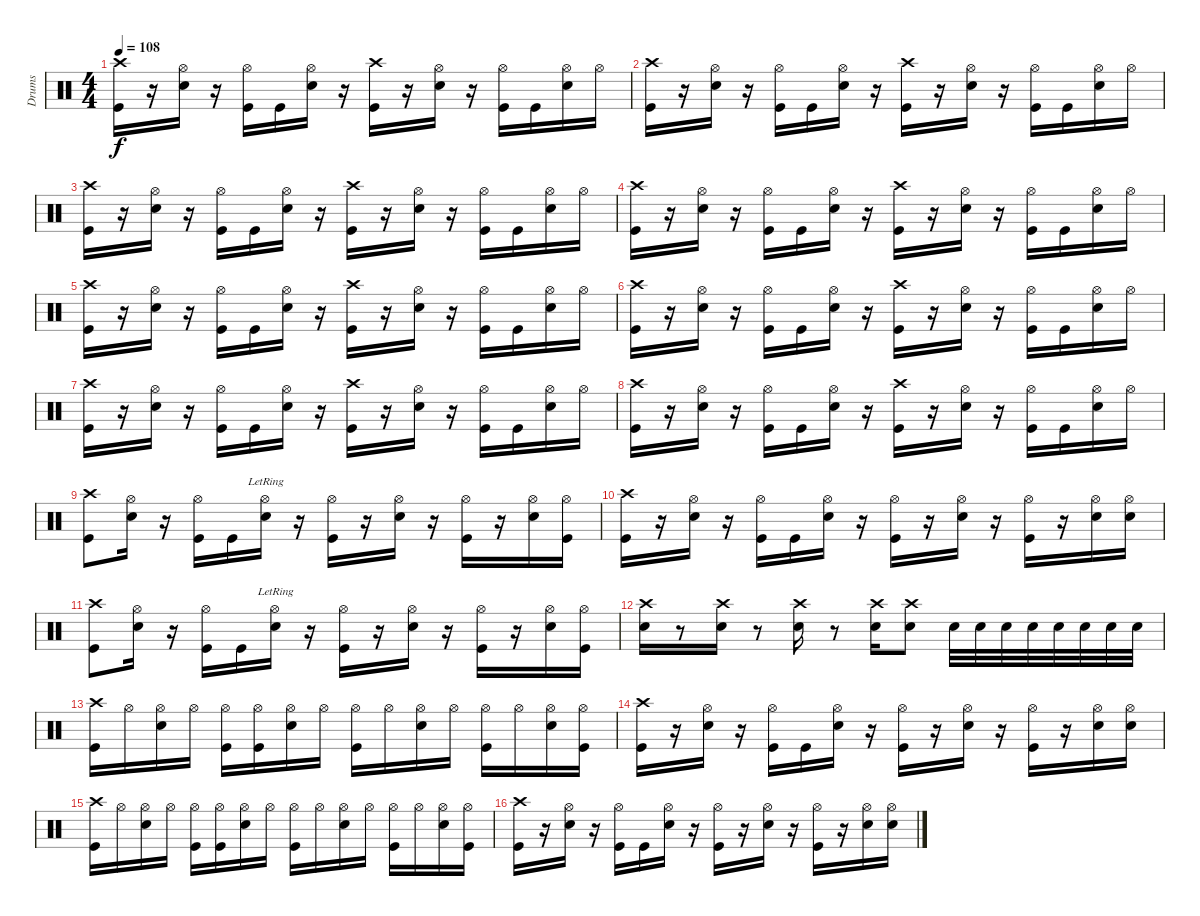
\track ("Drums" "Drums") {instrument percussion}
\staff {score}
\articulation defaults
\ts (4 4)
\tempo 108
\clef neutral
\ks c
("Crash high (hit)" "Kick (hit)").16{dy f} r.16 ("Hi-Hat (open)" "Snare (hit) 2").16 r.16 ("Hi-Hat (open)" "Kick (hit)").16 "Kick (hit)".16 ("Hi-Hat (open)" "Snare (hit) 2").16 r.16 ("Crash high (hit)" "Kick (hit)").16 r.16 ("Hi-Hat (open)" "Snare (hit) 2").16 r.16 ("Hi-Hat (open)" "Kick (hit)").16 "Kick (hit)".16 ("Hi-Hat (open)" "Snare (hit) 2").16 "Hi-Hat (open)".16 |
("Crash high (hit)" "Kick (hit)").16 r.16 ("Hi-Hat (open)" "Snare (hit) 2").16 r.16 ("Hi-Hat (open)" "Kick (hit)").16 "Kick (hit)".16 ("Hi-Hat (open)" "Snare (hit) 2").16 r.16 ("Crash high (hit)" "Kick (hit)").16 r.16 ("Hi-Hat (open)" "Snare (hit) 2").16 r.16 ("Hi-Hat (open)" "Kick (hit)").16 "Kick (hit)".16 ("Hi-Hat (open)" "Snare (hit) 2").16 "Hi-Hat (open)".16 |
("Crash high (hit)" "Kick (hit)").16 r.16 ("Hi-Hat (open)" "Snare (hit) 2").16 r.16 ("Hi-Hat (open)" "Kick (hit)").16 "Kick (hit)".16 ("Hi-Hat (open)" "Snare (hit) 2").16 r.16 ("Crash high (hit)" "Kick (hit)").16 r.16 ("Hi-Hat (open)" "Snare (hit) 2").16 r.16 ("Hi-Hat (open)" "Kick (hit)").16 "Kick (hit)".16 ("Hi-Hat (open)" "Snare (hit) 2").16 "Hi-Hat (open)".16 |
("Crash high (hit)" "Kick (hit)").16 r.16 ("Hi-Hat (open)" "Snare (hit) 2").16 r.16 ("Hi-Hat (open)" "Kick (hit)").16 "Kick (hit)".16 ("Hi-Hat (open)" "Snare (hit) 2").16 r.16 ("Crash high (hit)" "Kick (hit)").16 r.16 ("Hi-Hat (open)" "Snare (hit) 2").16 r.16 ("Hi-Hat (open)" "Kick (hit)").16 "Kick (hit)".16 ("Hi-Hat (open)" "Snare (hit) 2").16 "Hi-Hat (open)".16 |
("Crash high (hit)" "Kick (hit)").16 r.16 ("Hi-Hat (open)" "Snare (hit) 2").16 r.16 ("Hi-Hat (open)" "Kick (hit)").16 "Kick (hit)".16 ("Hi-Hat (open)" "Snare (hit) 2").16 r.16 ("Crash high (hit)" "Kick (hit)").16 r.16 ("Hi-Hat (open)" "Snare (hit) 2").16 r.16 ("Hi-Hat (open)" "Kick (hit)").16 "Kick (hit)".16 ("Hi-Hat (open)" "Snare (hit) 2").16 "Hi-Hat (open)".16 |
("Crash high (hit)" "Kick (hit)").16 r.16 ("Hi-Hat (open)" "Snare (hit) 2").16 r.16 ("Hi-Hat (open)" "Kick (hit)").16 "Kick (hit)".16 ("Hi-Hat (open)" "Snare (hit) 2").16 r.16 ("Crash high (hit)" "Kick (hit)").16 r.16 ("Hi-Hat (open)" "Snare (hit) 2").16 r.16 ("Hi-Hat (open)" "Kick (hit)").16 "Kick (hit)".16 ("Hi-Hat (open)" "Snare (hit) 2").16 "Hi-Hat (open)".16 |
("Crash high (hit)" "Kick (hit)").16 r.16 ("Hi-Hat (open)" "Snare (hit) 2").16 r.16 ("Hi-Hat (open)" "Kick (hit)").16 "Kick (hit)".16 ("Hi-Hat (open)" "Snare (hit) 2").16 r.16 ("Crash high (hit)" "Kick (hit)").16 r.16 ("Hi-Hat (open)" "Snare (hit) 2").16 r.16 ("Hi-Hat (open)" "Kick (hit)").16 "Kick (hit)".16 ("Hi-Hat (open)" "Snare (hit) 2").16 "Hi-Hat (open)".16 |
("Crash high (hit)" "Kick (hit)").16 r.16 ("Hi-Hat (open)" "Snare (hit) 2").16 r.16 ("Hi-Hat (open)" "Kick (hit)").16 "Kick (hit)".16 ("Hi-Hat (open)" "Snare (hit) 2").16 r.16 ("Crash high (hit)" "Kick (hit)").16 r.16 ("Hi-Hat (open)" "Snare (hit) 2").16 r.16 ("Hi-Hat (open)" "Kick (hit)").16 "Kick (hit)".16 ("Hi-Hat (open)" "Snare (hit) 2").16 "Hi-Hat (open)".16 |
("Crash high (hit)" "Kick (hit)").8 ("Hi-Hat (open)" "Snare (hit) 2").16 r.16 ("Hi-Hat (open)" "Kick (hit)").16 "Kick (hit)".16 ("Hi-Hat (open)"{lr} "Snare (hit) 2").16 r.16 ("Hi-Hat (open)" "Kick (hit)").16 r.16 ("Hi-Hat (open)" "Snare (hit) 2").16 r.16 ("Hi-Hat (open)" "Kick (hit)").16 r.16 ("Hi-Hat (open)" "Snare (hit) 2").16 ("Hi-Hat (open)" "Kick (hit)").16 |
("Crash high (hit)" "Kick (hit)").16 r.16 ("Hi-Hat (open)" "Snare (hit) 2").16 r.16 ("Hi-Hat (open)" "Kick (hit)").16 "Kick (hit)".16 ("Hi-Hat (open)" "Snare (hit) 2").16 r.16 ("Hi-Hat (open)" "Kick (hit)").16 r.16 ("Hi-Hat (open)" "Snare (hit) 2").16 r.16 ("Hi-Hat (open)" "Kick (hit)").16 r.16 ("Hi-Hat (open)" "Snare (hit) 2").16 ("Hi-Hat (open)" "Snare (hit) 2").16 |
("Crash high (hit)" "Kick (hit)").8 ("Hi-Hat (open)" "Snare (hit) 2").16 r.16 ("Hi-Hat (open)" "Kick (hit)").16 "Kick (hit)".16 ("Hi-Hat (open)"{lr} "Snare (hit) 2").16 r.16 ("Hi-Hat (open)" "Kick (hit)").16 r.16 ("Hi-Hat (open)" "Snare (hit) 2").16 r.16 ("Hi-Hat (open)" "Kick (hit)").16 r.16 ("Hi-Hat (open)" "Snare (hit) 2").16 ("Hi-Hat (open)" "Kick (hit)").16 |
("Crash high (hit)" "Snare (hit) 2").16 r.8 ("Crash high (hit)" "Snare (hit) 2").16 r.8 ("Crash high (hit)" "Snare (hit) 2").16 r.8 ("Crash high (hit)" "Snare (hit) 2").16 ("Crash high (hit)" "Snare (hit) 2").8 "Snare (hit) 2".32 "Snare (hit) 2".32 "Snare (hit) 2".32 "Snare (hit) 2".32 "Snare (hit) 2".32 "Snare (hit) 2".32 "Snare (hit) 2".32 "Snare (hit) 2".32 |
("Crash high (hit)" "Kick (hit)").16 "Hi-Hat (open)".16 ("Hi-Hat (open)" "Snare (hit) 2").16 "Hi-Hat (open)".16 ("Hi-Hat (open)" "Kick (hit)").16 ("Hi-Hat (open)" "Kick (hit)").16 ("Hi-Hat (open)" "Snare (hit) 2").16 "Hi-Hat (open)".16 ("Hi-Hat (open)" "Kick (hit)").16 "Hi-Hat (open)".16 ("Hi-Hat (open)" "Snare (hit) 2").16 "Hi-Hat (open)".16 ("Hi-Hat (open)" "Kick (hit)").16 "Hi-Hat (open)".16 ("Hi-Hat (open)" "Snare (hit) 2").16 ("Hi-Hat (open)" "Kick (hit)").16 |
("Crash high (hit)" "Kick (hit)").16 r.16 ("Hi-Hat (open)" "Snare (hit) 2").16 r.16 ("Hi-Hat (open)" "Kick (hit)").16 "Kick (hit)".16 ("Hi-Hat (open)" "Snare (hit) 2").16 r.16 ("Hi-Hat (open)" "Kick (hit)").16 r.16 ("Hi-Hat (open)" "Snare (hit) 2").16 r.16 ("Hi-Hat (open)" "Kick (hit)").16 r.16 ("Hi-Hat (open)" "Snare (hit) 2").16 ("Hi-Hat (open)" "Snare (hit) 2").16 |
("Crash high (hit)" "Kick (hit)").16 "Hi-Hat (open)".16 ("Hi-Hat (open)" "Snare (hit) 2").16 "Hi-Hat (open)".16 ("Hi-Hat (open)" "Kick (hit)").16 ("Hi-Hat (open)" "Kick (hit)").16 ("Hi-Hat (open)" "Snare (hit) 2").16 "Hi-Hat (open)".16 ("Hi-Hat (open)" "Kick (hit)").16 "Hi-Hat (open)".16 ("Hi-Hat (open)" "Snare (hit) 2").16 "Hi-Hat (open)".16 ("Hi-Hat (open)" "Kick (hit)").16 "Hi-Hat (open)".16 ("Hi-Hat (open)" "Snare (hit) 2").16 ("Hi-Hat (open)" "Kick (hit)").16 |
("Crash high (hit)" "Kick (hit)").16 r.16 ("Hi-Hat (open)" "Snare (hit) 2").16 r.16 ("Hi-Hat (open)" "Kick (hit)").16 "Kick (hit)".16 ("Hi-Hat (open)" "Snare (hit) 2").16 r.16 ("Hi-Hat (open)" "Kick (hit)").16 r.16 ("Hi-Hat (open)" "Snare (hit) 2").16 r.16 ("Hi-Hat (open)" "Kick (hit)").16 r.16 ("Hi-Hat (open)" "Snare (hit) 2").16 ("Hi-Hat (open)" "Snare (hit) 2").16
